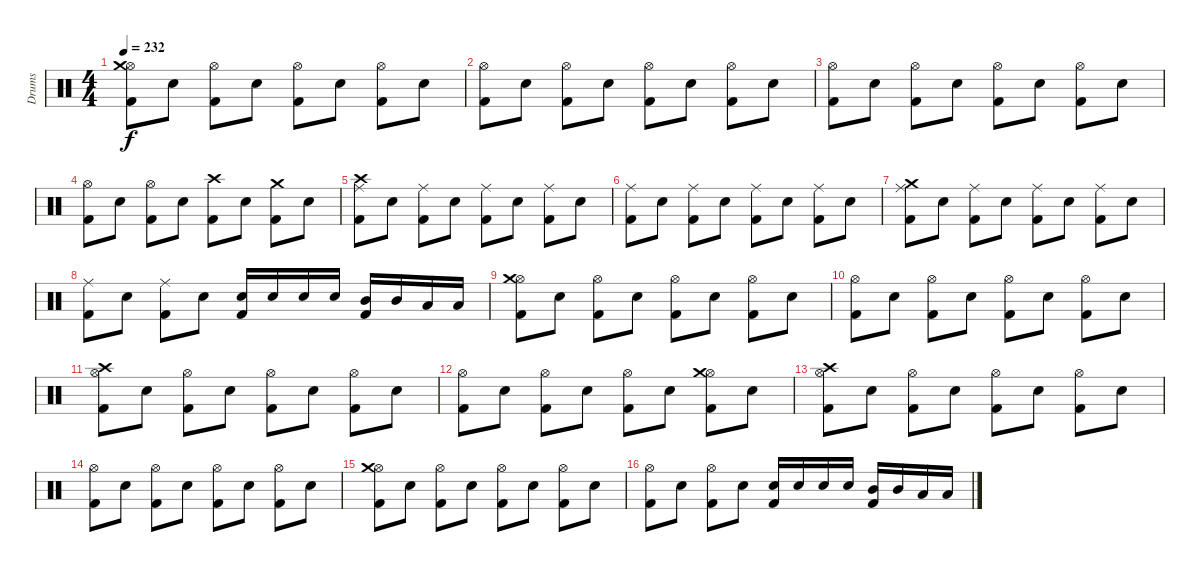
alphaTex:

\track ("Drums" "Drums") {instrument percussion}
\staff {score}
\articulation defaults
\ts (4 4)
\tempo 232
\clef neutral
\ks c
("Kick (hit) 2" "Hi-Hat (open)" "Crash medium (hit)").8{dy f} "Snare (hit) 2".8 ("Kick (hit) 2" "Hi-Hat (open)").8 "Snare (hit) 2".8 ("Kick (hit) 2" "Hi-Hat (open)").8 "Snare (hit) 2".8 ("Kick (hit) 2" "Hi-Hat (open)").8 "Snare (hit) 2".8 |
("Kick (hit) 2" "Hi-Hat (open)").8 "Snare (hit) 2".8 ("Kick (hit) 2" "Hi-Hat (open)").8 "Snare (hit) 2".8 ("Kick (hit) 2" "Hi-Hat (open)").8 "Snare (hit) 2".8 ("Kick (hit) 2" "Hi-Hat (open)").8 "Snare (hit) 2".8 |
("Kick (hit) 2" "Hi-Hat (open)").8 "Snare (hit) 2".8 ("Kick (hit) 2" "Hi-Hat (open)").8 "Snare (hit) 2".8 ("Kick (hit) 2" "Hi-Hat (open)").8 "Snare (hit) 2".8 ("Kick (hit) 2" "Hi-Hat (open)").8 "Snare (hit) 2".8 |
("Kick (hit) 2" "Hi-Hat (open)").8 "Snare (hit) 2".8 ("Kick (hit) 2" "Hi-Hat (open)").8 "Snare (hit) 2".8 ("Kick (hit) 2" "Crash high (hit)").8 "Snare (hit) 2".8 ("Kick (hit) 2" "Crash medium (hit)").8 "Snare (hit) 2".8 |
("Kick (hit) 2" "Ride (middle)" "Crash high (hit)").8 "Snare (hit) 2".8 ("Kick (hit) 2" "Ride (middle)").8 "Snare (hit) 2".8 ("Kick (hit) 2" "Ride (middle)").8 "Snare (hit) 2".8 ("Kick (hit) 2" "Ride (middle)").8 "Snare (hit) 2".8 |
("Kick (hit) 2" "Ride (middle)").8 "Snare (hit) 2".8 ("Kick (hit) 2" "Ride (middle)").8 "Snare (hit) 2".8 ("Kick (hit) 2" "Ride (middle)").8 "Snare (hit) 2".8 ("Kick (hit) 2" "Ride (middle)").8 "Snare (hit) 2".8 |
("Kick (hit) 2" "Ride (middle)" "Crash medium (hit)").8 "Snare (hit) 2".8 ("Kick (hit) 2" "Ride (middle)").8 "Snare (hit) 2".8 ("Kick (hit) 2" "Ride (middle)").8 "Snare (hit) 2".8 ("Kick (hit) 2" "Ride (middle)").8 "Snare (hit) 2".8 |
("Kick (hit) 2" "Ride (middle)").8 "Snare (hit) 2".8 ("Kick (hit) 2" "Ride (middle)").8 "Snare (hit) 2".8 ("Kick (hit) 2" "Snare (hit) 2").16 "Snare (hit) 2".16 "Snare (hit) 2".16 "Snare (hit) 2".16 ("Kick (hit) 2" "Mid Tom (hit)").16 "Mid Tom (hit)".16 "Low Tom (hit)".16 "Low Tom (hit)".16 |
("Kick (hit) 2" "Hi-Hat (open)" "Crash medium (hit)").8 "Snare (hit) 2".8 ("Kick (hit) 2" "Hi-Hat (open)").8 "Snare (hit) 2".8 ("Kick (hit) 2" "Hi-Hat (open)").8 "Snare (hit) 2".8 ("Kick (hit) 2" "Hi-Hat (open)").8 "Snare (hit) 2".8 |
("Kick (hit) 2" "Hi-Hat (open)").8 "Snare (hit) 2".8 ("Kick (hit) 2" "Hi-Hat (open)").8 "Snare (hit) 2".8 ("Kick (hit) 2" "Hi-Hat (open)").8 "Snare (hit) 2".8 ("Kick (hit) 2" "Hi-Hat (open)").8 "Snare (hit) 2".8 |
("Kick (hit) 2" "Hi-Hat (open)" "Crash high (hit)").8 "Snare (hit) 2".8 ("Kick (hit) 2" "Hi-Hat (open)").8 "Snare (hit) 2".8 ("Kick (hit) 2" "Hi-Hat (open)").8 "Snare (hit) 2".8 ("Kick (hit) 2" "Hi-Hat (open)").8 "Snare (hit) 2".8 |
("Kick (hit) 2" "Hi-Hat (open)").8 "Snare (hit) 2".8 ("Kick (hit) 2" "Hi-Hat (open)").8 "Snare (hit) 2".8 ("Kick (hit) 2" "Hi-Hat (open)").8 "Snare (hit) 2".8 ("Kick (hit) 2" "Hi-Hat (open)" "Crash medium (hit)").8 "Snare (hit) 2".8 |
("Kick (hit) 2" "Hi-Hat (open)" "Crash high (hit)").8 "Snare (hit) 2".8 ("Kick (hit) 2" "Hi-Hat (open)").8 "Snare (hit) 2".8 ("Kick (hit) 2" "Hi-Hat (open)").8 "Snare (hit) 2".8 ("Kick (hit) 2" "Hi-Hat (open)").8 "Snare (hit) 2".8 |
("Kick (hit) 2" "Hi-Hat (open)").8 "Snare (hit) 2".8 ("Kick (hit) 2" "Hi-Hat (open)").8 "Snare (hit) 2".8 ("Kick (hit) 2" "Hi-Hat (open)").8 "Snare (hit) 2".8 ("Kick (hit) 2" "Hi-Hat (open)").8 "Snare (hit) 2".8 |
("Kick (hit) 2" "Hi-Hat (open)" "Crash medium (hit)").8 "Snare (hit) 2".8 ("Kick (hit) 2" "Hi-Hat (open)").8 "Snare (hit) 2".8 ("Kick (hit) 2" "Hi-Hat (open)").8 "Snare (hit) 2".8 ("Kick (hit) 2" "Hi-Hat (open)").8 "Snare (hit) 2".8 |
("Kick (hit) 2" "Hi-Hat (open)").8 "Snare (hit) 2".8 ("Kick (hit) 2" "Hi-Hat (open)").8 "Snare (hit) 2".8 ("Kick (hit) 2" "Snare (hit) 2").16 "Snare (hit) 2".16 "Snare (hit) 2".16 "Snare (hit) 2".16 ("Kick (hit) 2" "Mid Tom (hit)").16 "Mid Tom (hit)".16 "Low Tom (hit)".16 "Low Tom (hit)".16
